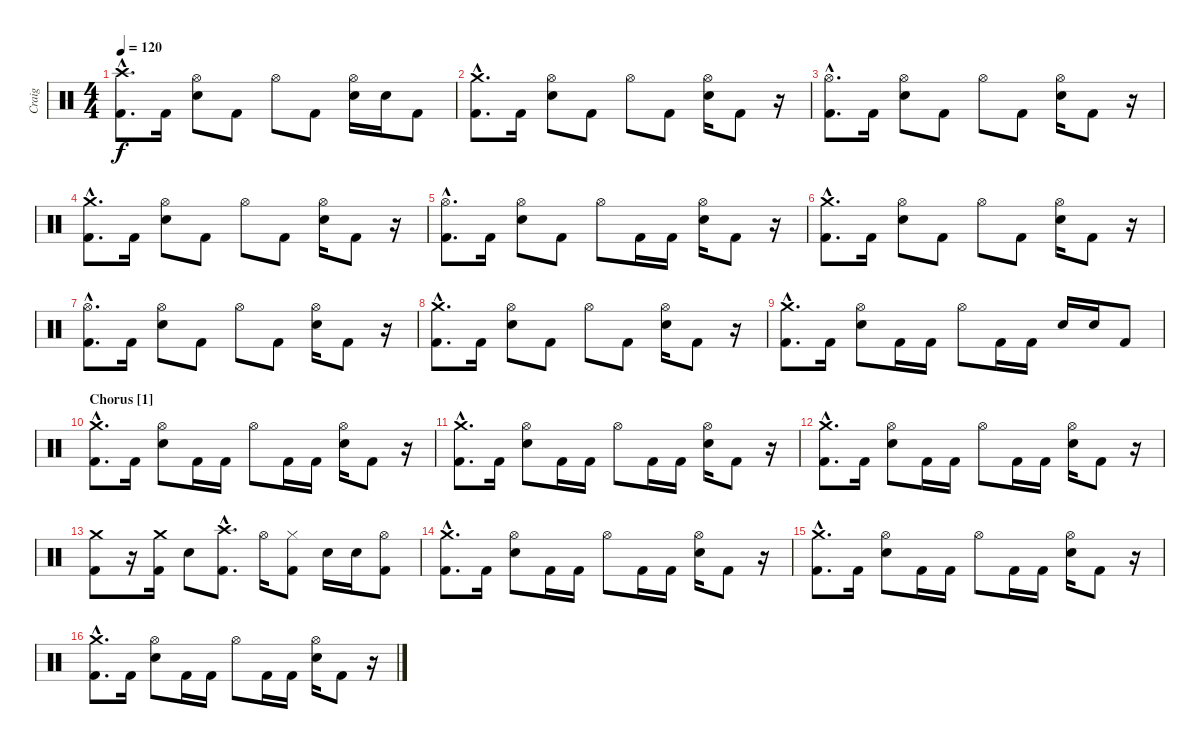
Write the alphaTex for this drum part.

\track ("Craig" "Craig") {instrument percussion}
\staff {score}
\articulation defaults
\ts (4 4)
\tempo 120
\clef neutral
\ks c
("Crash high (hit)"{hac} "Kick (hit) 2"{hac}).8{d dy f} "Kick (hit) 2".16 ("Hi-Hat (open)" "Electric Snare (hit)").8 "Kick (hit) 2".8 "Hi-Hat (open)".8 "Kick (hit) 2".8 ("Hi-Hat (open)" "Electric Snare (hit)").16 "Electric Snare (hit)".16 "Kick (hit) 2".8 |
("Crash medium (hit)"{hac} "Kick (hit) 2"{hac}).8{d} "Kick (hit) 2".16 ("Hi-Hat (open)" "Electric Snare (hit)").8 "Kick (hit) 2".8 "Hi-Hat (open)".8 "Kick (hit) 2".8 ("Hi-Hat (open)" "Electric Snare (hit)").16 "Kick (hit) 2".8 r.16 |
("Hi-Hat (open)"{hac} "Kick (hit) 2"{hac}).8{d} "Kick (hit) 2".16 ("Hi-Hat (open)" "Electric Snare (hit)").8 "Kick (hit) 2".8 "Hi-Hat (open)".8 "Kick (hit) 2".8 ("Hi-Hat (open)" "Electric Snare (hit)").16 "Kick (hit) 2".8 r.16 |
("Crash medium (hit)"{hac} "Kick (hit) 2"{hac}).8{d} "Kick (hit) 2".16 ("Hi-Hat (open)" "Electric Snare (hit)").8 "Kick (hit) 2".8 "Hi-Hat (open)".8 "Kick (hit) 2".8 ("Hi-Hat (open)" "Electric Snare (hit)").16 "Kick (hit) 2".8 r.16 |
("Hi-Hat (open)"{hac} "Kick (hit) 2"{hac}).8{d} "Kick (hit) 2".16 ("Hi-Hat (open)" "Electric Snare (hit)").8 "Kick (hit) 2".8 "Hi-Hat (open)".8 "Kick (hit) 2".16 "Kick (hit) 2".16 ("Hi-Hat (open)" "Electric Snare (hit)").16 "Kick (hit) 2".8 r.16 |
("Crash medium (hit)"{hac} "Kick (hit) 2"{hac}).8{d} "Kick (hit) 2".16 ("Hi-Hat (open)" "Electric Snare (hit)").8 "Kick (hit) 2".8 "Hi-Hat (open)".8 "Kick (hit) 2".8 ("Hi-Hat (open)" "Electric Snare (hit)").16 "Kick (hit) 2".8 r.16 |
("Hi-Hat (open)"{hac} "Kick (hit) 2"{hac}).8{d} "Kick (hit) 2".16 ("Hi-Hat (open)" "Electric Snare (hit)").8 "Kick (hit) 2".8 "Hi-Hat (open)".8 "Kick (hit) 2".8 ("Hi-Hat (open)" "Electric Snare (hit)").16 "Kick (hit) 2".8 r.16 |
("Crash medium (hit)"{hac} "Kick (hit) 2"{hac}).8{d} "Kick (hit) 2".16 ("Hi-Hat (open)" "Electric Snare (hit)").8 "Kick (hit) 2".8 "Hi-Hat (open)".8 "Kick (hit) 2".8 ("Hi-Hat (open)" "Electric Snare (hit)").16 "Kick (hit) 2".8 r.16 |
("Crash medium (hit)"{hac} "Kick (hit) 2"{hac}).8{d} "Kick (hit) 2".16 ("Hi-Hat (open)" "Electric Snare (hit)").8 "Kick (hit) 2".16 "Kick (hit) 2".16 "Hi-Hat (open)".8 "Kick (hit) 2".16 "Kick (hit) 2".16 "Electric Snare (hit)".16 "Electric Snare (hit)".16 "Kick (hit) 2".8 |
\section ("" "Chorus [1]")
("Crash medium (hit)"{hac} "Kick (hit) 2"{hac}).8{d} "Kick (hit) 2".16 ("Hi-Hat (open)" "Electric Snare (hit)").8 "Kick (hit) 2".16 "Kick (hit) 2".16 "Hi-Hat (open)".8 "Kick (hit) 2".16 "Kick (hit) 2".16 ("Hi-Hat (open)" "Electric Snare (hit)").16 "Kick (hit) 2".8 r.16 |
("Crash medium (hit)"{hac} "Kick (hit) 2"{hac}).8{d} "Kick (hit) 2".16 ("Hi-Hat (open)" "Electric Snare (hit)").8 "Kick (hit) 2".16 "Kick (hit) 2".16 "Hi-Hat (open)".8 "Kick (hit) 2".16 "Kick (hit) 2".16 ("Hi-Hat (open)" "Electric Snare (hit)").16 "Kick (hit) 2".8 r.16 |
("Crash medium (hit)"{hac} "Kick (hit) 2"{hac}).8{d} "Kick (hit) 2".16 ("Hi-Hat (open)" "Electric Snare (hit)").8 "Kick (hit) 2".16 "Kick (hit) 2".16 "Hi-Hat (open)".8 "Kick (hit) 2".16 "Kick (hit) 2".16 ("Hi-Hat (open)" "Electric Snare (hit)").16 "Kick (hit) 2".8 r.16 |
("Crash medium (hit)" "Kick (hit) 2").8 r.16 ("Crash medium (hit)" "Kick (hit) 2").16 "Electric Snare (hit)".8 ("Crash high (hit)"{hac} "Kick (hit) 2"{hac}).8{d} "Hi-Hat (open)".16 ("Hi-Hat (closed)" "Kick (hit) 2").8 "Electric Snare (hit)".16 "Electric Snare (hit)".16 ("Hi-Hat (open)" "Kick (hit) 2").8 |
("Crash medium (hit)"{hac} "Kick (hit) 2"{hac}).8{d} "Kick (hit) 2".16 ("Hi-Hat (open)" "Electric Snare (hit)").8 "Kick (hit) 2".16 "Kick (hit) 2".16 "Hi-Hat (open)".8 "Kick (hit) 2".16 "Kick (hit) 2".16 ("Hi-Hat (open)" "Electric Snare (hit)").16 "Kick (hit) 2".8 r.16 |
("Crash medium (hit)"{hac} "Kick (hit) 2"{hac}).8{d} "Kick (hit) 2".16 ("Hi-Hat (open)" "Electric Snare (hit)").8 "Kick (hit) 2".16 "Kick (hit) 2".16 "Hi-Hat (open)".8 "Kick (hit) 2".16 "Kick (hit) 2".16 ("Hi-Hat (open)" "Electric Snare (hit)").16 "Kick (hit) 2".8 r.16 |
("Crash medium (hit)"{hac} "Kick (hit) 2"{hac}).8{d} "Kick (hit) 2".16 ("Hi-Hat (open)" "Electric Snare (hit)").8 "Kick (hit) 2".16 "Kick (hit) 2".16 "Hi-Hat (open)".8 "Kick (hit) 2".16 "Kick (hit) 2".16 ("Hi-Hat (open)" "Electric Snare (hit)").16 "Kick (hit) 2".8 r.16
